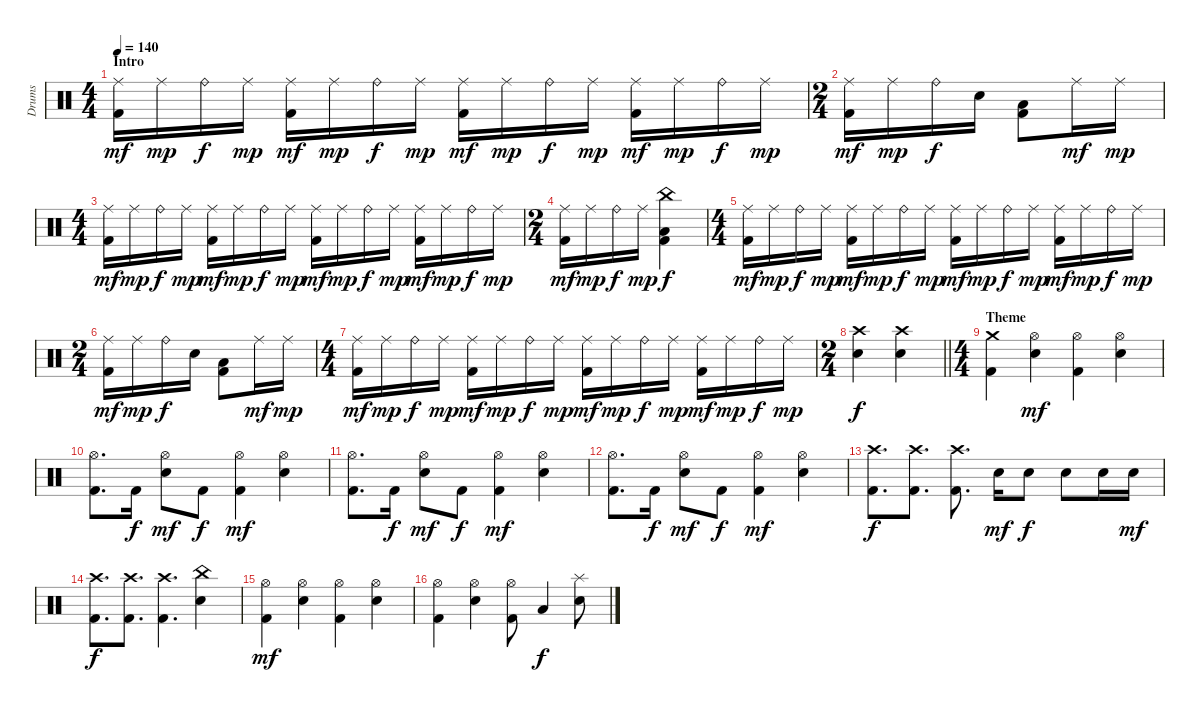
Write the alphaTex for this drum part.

\track ("Drums" "Drums") {instrument percussion}
\staff {score}
\articulation defaults
\ts (4 4)
\section ("" "Intro")
\tempo 140
\clef neutral
\ks c
("Kick (hit) 2" "Ride (middle)").16{dy mf} "Ride (middle)".16{dy mp} "Ride (bell)".16{dy f} "Ride (middle)".16{dy mp} ("Kick (hit) 2" "Ride (middle)").16{dy mf} "Ride (middle)".16{dy mp} "Ride (bell)".16{dy f} "Ride (middle)".16{dy mp} ("Kick (hit) 2" "Ride (middle)").16{dy mf} "Ride (middle)".16{dy mp} "Ride (bell)".16{dy f} "Ride (middle)".16{dy mp} ("Kick (hit) 2" "Ride (middle)").16{dy mf} "Ride (middle)".16{dy mp} "Ride (bell)".16{dy f} "Ride (middle)".16{dy mp} |
\ts (2 4)
("Kick (hit) 2" "Ride (middle)").16{dy mf} "Ride (middle)".16{dy mp} "Ride (bell)".16{dy f} "Electric Snare (hit)".16 ("Kick (hit) 2" "Low Tom (hit)").8 "Ride (middle)".16{dy mf} "Ride (middle)".16{dy mp} |
\ts (4 4)
("Kick (hit) 2" "Ride (middle)").16{dy mf} "Ride (middle)".16{dy mp} "Ride (bell)".16{dy f} "Ride (middle)".16{dy mp} ("Kick (hit) 2" "Ride (middle)").16{dy mf} "Ride (middle)".16{dy mp} "Ride (bell)".16{dy f} "Ride (middle)".16{dy mp} ("Kick (hit) 2" "Ride (middle)").16{dy mf} "Ride (middle)".16{dy mp} "Ride (bell)".16{dy f} "Ride (middle)".16{dy mp} ("Kick (hit) 2" "Ride (middle)").16{dy mf} "Ride (middle)".16{dy mp} "Ride (bell)".16{dy f} "Ride (middle)".16{dy mp} |
\ts (2 4)
("Kick (hit) 2" "Ride (middle)").16{dy mf} "Ride (middle)".16{dy mp} "Ride (bell)".16{dy f} "Ride (middle)".16{dy mp} ("Kick (hit) 2" "China (hit)" "Low Tom (hit)").4{dy f} |
\ts (4 4)
("Kick (hit) 2" "Ride (middle)").16{dy mf} "Ride (middle)".16{dy mp} "Ride (bell)".16{dy f} "Ride (middle)".16{dy mp} ("Kick (hit) 2" "Ride (middle)").16{dy mf} "Ride (middle)".16{dy mp} "Ride (bell)".16{dy f} "Ride (middle)".16{dy mp} ("Kick (hit) 2" "Ride (middle)").16{dy mf} "Ride (middle)".16{dy mp} "Ride (bell)".16{dy f} "Ride (middle)".16{dy mp} ("Kick (hit) 2" "Ride (middle)").16{dy mf} "Ride (middle)".16{dy mp} "Ride (bell)".16{dy f} "Ride (middle)".16{dy mp} |
\ts (2 4)
("Kick (hit) 2" "Ride (middle)").16{dy mf} "Ride (middle)".16{dy mp} "Ride (bell)".16{dy f} "Electric Snare (hit)".16 ("Kick (hit) 2" "Low Tom (hit)").8 "Ride (middle)".16{dy mf} "Ride (middle)".16{dy mp} |
\ts (4 4)
("Kick (hit) 2" "Ride (middle)").16{dy mf} "Ride (middle)".16{dy mp} "Ride (bell)".16{dy f} "Ride (middle)".16{dy mp} ("Kick (hit) 2" "Ride (middle)").16{dy mf} "Ride (middle)".16{dy mp} "Ride (bell)".16{dy f} "Ride (middle)".16{dy mp} ("Kick (hit) 2" "Ride (middle)").16{dy mf} "Ride (middle)".16{dy mp} "Ride (bell)".16{dy f} "Ride (middle)".16{dy mp} ("Kick (hit) 2" "Ride (middle)").16{dy mf} "Ride (middle)".16{dy mp} "Ride (bell)".16{dy f} "Ride (middle)".16{dy mp} |
\ts (2 4)
\barLineRight lightlight
("Crash high (hit)" "Electric Snare (hit)").4{dy f} ("Crash high (hit)" "Electric Snare (hit)").4 |
\ts (4 4)
\section ("" "Theme")
("Kick (hit) 2" "Crash medium (hit)").4 ("Hi-Hat (open)" "Electric Snare (hit)").4{dy mf} ("Kick (hit) 2" "Hi-Hat (open)").4 ("Hi-Hat (open)" "Electric Snare (hit)").4 |
("Kick (hit) 2" "Hi-Hat (open)").8{d} "Kick (hit) 2".16{dy f} ("Hi-Hat (open)" "Electric Snare (hit)").8{dy mf} "Kick (hit) 2".8{dy f} ("Kick (hit) 2" "Hi-Hat (open)").4{dy mf} ("Hi-Hat (open)" "Electric Snare (hit)").4 |
("Kick (hit) 2" "Hi-Hat (open)").8{d} "Kick (hit) 2".16{dy f} ("Hi-Hat (open)" "Electric Snare (hit)").8{dy mf} "Kick (hit) 2".8{dy f} ("Kick (hit) 2" "Hi-Hat (open)").4{dy mf} ("Hi-Hat (open)" "Electric Snare (hit)").4 |
("Kick (hit) 2" "Hi-Hat (open)").8{d} "Kick (hit) 2".16{dy f} ("Hi-Hat (open)" "Electric Snare (hit)").8{dy mf} "Kick (hit) 2".8{dy f} ("Kick (hit) 2" "Hi-Hat (open)").4{dy mf} ("Hi-Hat (open)" "Electric Snare (hit)").4 |
("Kick (hit) 2" "Crash high (hit)").8{d dy f} ("Kick (hit) 2" "Crash high (hit)").8{d} ("Kick (hit) 2" "Crash high (hit)").8{d} "Electric Snare (hit)".16{dy mf} "Electric Snare (hit)".8{dy f} "Electric Snare (hit)".8 "Electric Snare (hit)".16 "Electric Snare (hit)".16{dy mf} |
("Kick (hit) 2" "Crash high (hit)").8{d dy f} ("Kick (hit) 2" "Crash high (hit)").8{d} ("Kick (hit) 2" "Crash high (hit)").4{d} ("China (hit)" "Electric Snare (hit)").4 |
("Kick (hit) 2" "Hi-Hat (open)").4{dy mf} ("Hi-Hat (open)" "Electric Snare (hit)").4 ("Kick (hit) 2" "Hi-Hat (open)").4 ("Hi-Hat (open)" "Electric Snare (hit)").4 |
("Kick (hit) 2" "Hi-Hat (open)").4 ("Hi-Hat (open)" "Electric Snare (hit)").4 ("Kick (hit) 2" "Hi-Hat (open)").8 "Low Tom (hit)".4{dy f} ("Splash (hit)" "Electric Snare (hit)").8
